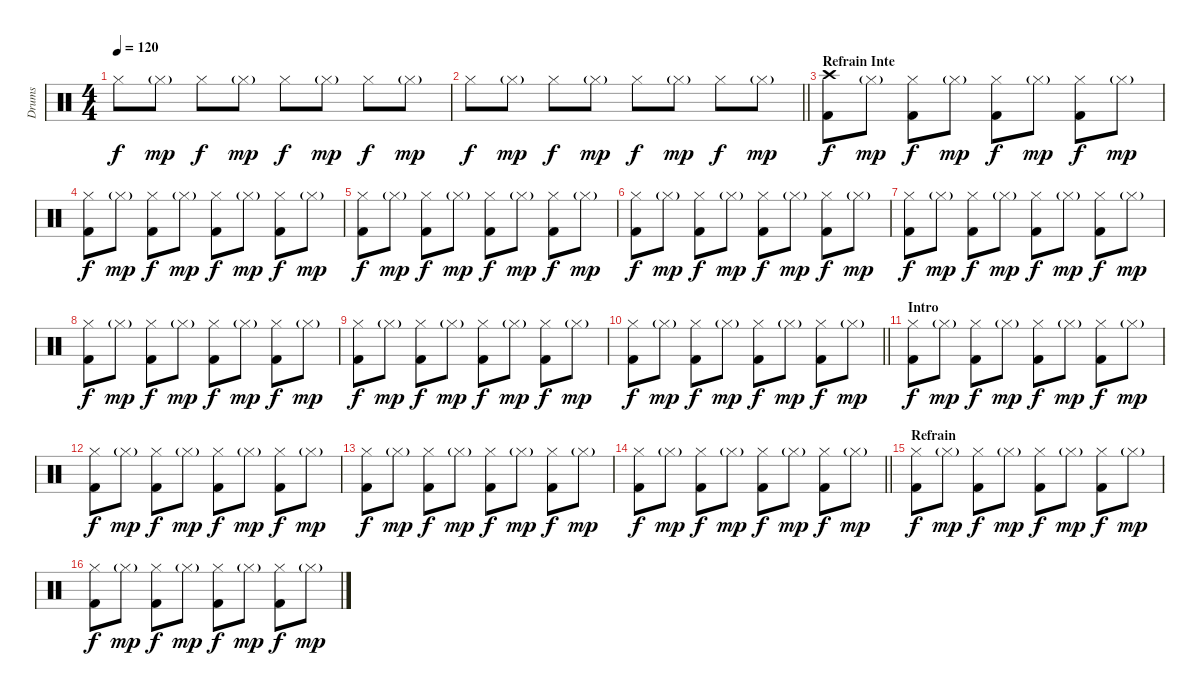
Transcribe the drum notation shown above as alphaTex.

\track ("Drums" "Drums") {instrument percussion}
\staff {score}
\articulation defaults
\ts (4 4)
\tempo 120
\clef neutral
\ks c "Hi-Hat (closed)".8{dy f} "Hi-Hat (closed)"{g}.8{dy mp} "Hi-Hat (closed)".8{dy f} "Hi-Hat (closed)"{g}.8{dy mp} "Hi-Hat (closed)".8{dy f} "Hi-Hat (closed)"{g}.8{dy mp} "Hi-Hat (closed)".8{dy f} "Hi-Hat (closed)"{g}.8{dy mp}
|
\barLineRight lightlight "Hi-Hat (closed)".8{dy f} "Hi-Hat (closed)"{g}.8{dy mp} "Hi-Hat (closed)".8{dy f} "Hi-Hat (closed)"{g}.8{dy mp} "Hi-Hat (closed)".8{dy f} "Hi-Hat (closed)"{g}.8{dy mp} "Hi-Hat (closed)".8{dy f} "Hi-Hat (closed)"{g}.8{dy mp}
|
\section ("" "Refrain Inte")
("Crash high (hit)" "Kick (hit) 2").8{dy f} "Hi-Hat (closed)"{g}.8{dy mp} ("Hi-Hat (closed)" "Kick (hit) 2").8{dy f} "Hi-Hat (closed)"{g}.8{dy mp} ("Hi-Hat (closed)" "Kick (hit) 2").8{dy f} "Hi-Hat (closed)"{g}.8{dy mp} ("Hi-Hat (closed)" "Kick (hit) 2").8{dy f} "Hi-Hat (closed)"{g}.8{dy mp} |
("Hi-Hat (closed)" "Kick (hit) 2").8{dy f} "Hi-Hat (closed)"{g}.8{dy mp} ("Hi-Hat (closed)" "Kick (hit) 2").8{dy f} "Hi-Hat (closed)"{g}.8{dy mp} ("Hi-Hat (closed)" "Kick (hit) 2").8{dy f} "Hi-Hat (closed)"{g}.8{dy mp} ("Hi-Hat (closed)" "Kick (hit) 2").8{dy f} "Hi-Hat (closed)"{g}.8{dy mp} |
("Hi-Hat (closed)" "Kick (hit) 2").8{dy f} "Hi-Hat (closed)"{g}.8{dy mp} ("Hi-Hat (closed)" "Kick (hit) 2").8{dy f} "Hi-Hat (closed)"{g}.8{dy mp} ("Hi-Hat (closed)" "Kick (hit) 2").8{dy f} "Hi-Hat (closed)"{g}.8{dy mp} ("Hi-Hat (closed)" "Kick (hit) 2").8{dy f} "Hi-Hat (closed)"{g}.8{dy mp} |
("Hi-Hat (closed)" "Kick (hit) 2").8{dy f} "Hi-Hat (closed)"{g}.8{dy mp} ("Hi-Hat (closed)" "Kick (hit) 2").8{dy f} "Hi-Hat (closed)"{g}.8{dy mp} ("Hi-Hat (closed)" "Kick (hit) 2").8{dy f} "Hi-Hat (closed)"{g}.8{dy mp} ("Hi-Hat (closed)" "Kick (hit) 2").8{dy f} "Hi-Hat (closed)"{g}.8{dy mp} |
("Hi-Hat (closed)" "Kick (hit) 2").8{dy f} "Hi-Hat (closed)"{g}.8{dy mp} ("Hi-Hat (closed)" "Kick (hit) 2").8{dy f} "Hi-Hat (closed)"{g}.8{dy mp} ("Hi-Hat (closed)" "Kick (hit) 2").8{dy f} "Hi-Hat (closed)"{g}.8{dy mp} ("Hi-Hat (closed)" "Kick (hit) 2").8{dy f} "Hi-Hat (closed)"{g}.8{dy mp} |
("Hi-Hat (closed)" "Kick (hit) 2").8{dy f} "Hi-Hat (closed)"{g}.8{dy mp} ("Hi-Hat (closed)" "Kick (hit) 2").8{dy f} "Hi-Hat (closed)"{g}.8{dy mp} ("Hi-Hat (closed)" "Kick (hit) 2").8{dy f} "Hi-Hat (closed)"{g}.8{dy mp} ("Hi-Hat (closed)" "Kick (hit) 2").8{dy f} "Hi-Hat (closed)"{g}.8{dy mp} |
("Hi-Hat (closed)" "Kick (hit) 2").8{dy f} "Hi-Hat (closed)"{g}.8{dy mp} ("Hi-Hat (closed)" "Kick (hit) 2").8{dy f} "Hi-Hat (closed)"{g}.8{dy mp} ("Hi-Hat (closed)" "Kick (hit) 2").8{dy f} "Hi-Hat (closed)"{g}.8{dy mp} ("Hi-Hat (closed)" "Kick (hit) 2").8{dy f} "Hi-Hat (closed)"{g}.8{dy mp} |
\barLineRight lightlight
("Hi-Hat (closed)" "Kick (hit) 2").8{dy f} "Hi-Hat (closed)"{g}.8{dy mp} ("Hi-Hat (closed)" "Kick (hit) 2").8{dy f} "Hi-Hat (closed)"{g}.8{dy mp} ("Hi-Hat (closed)" "Kick (hit) 2").8{dy f} "Hi-Hat (closed)"{g}.8{dy mp} ("Hi-Hat (closed)" "Kick (hit) 2").8{dy f} "Hi-Hat (closed)"{g}.8{dy mp} |
\section ("" "Intro")
("Hi-Hat (closed)" "Kick (hit) 2").8{dy f} "Hi-Hat (closed)"{g}.8{dy mp} ("Hi-Hat (closed)" "Kick (hit) 2").8{dy f} "Hi-Hat (closed)"{g}.8{dy mp} ("Hi-Hat (closed)" "Kick (hit) 2").8{dy f} "Hi-Hat (closed)"{g}.8{dy mp} ("Hi-Hat (closed)" "Kick (hit) 2").8{dy f} "Hi-Hat (closed)"{g}.8{dy mp} |
("Hi-Hat (closed)" "Kick (hit) 2").8{dy f} "Hi-Hat (closed)"{g}.8{dy mp} ("Hi-Hat (closed)" "Kick (hit) 2").8{dy f} "Hi-Hat (closed)"{g}.8{dy mp} ("Hi-Hat (closed)" "Kick (hit) 2").8{dy f} "Hi-Hat (closed)"{g}.8{dy mp} ("Hi-Hat (closed)" "Kick (hit) 2").8{dy f} "Hi-Hat (closed)"{g}.8{dy mp} |
("Hi-Hat (closed)" "Kick (hit) 2").8{dy f} "Hi-Hat (closed)"{g}.8{dy mp} ("Hi-Hat (closed)" "Kick (hit) 2").8{dy f} "Hi-Hat (closed)"{g}.8{dy mp} ("Hi-Hat (closed)" "Kick (hit) 2").8{dy f} "Hi-Hat (closed)"{g}.8{dy mp} ("Hi-Hat (closed)" "Kick (hit) 2").8{dy f} "Hi-Hat (closed)"{g}.8{dy mp} |
\barLineRight lightlight
("Hi-Hat (closed)" "Kick (hit) 2").8{dy f} "Hi-Hat (closed)"{g}.8{dy mp} ("Hi-Hat (closed)" "Kick (hit) 2").8{dy f} "Hi-Hat (closed)"{g}.8{dy mp} ("Hi-Hat (closed)" "Kick (hit) 2").8{dy f} "Hi-Hat (closed)"{g}.8{dy mp} ("Hi-Hat (closed)" "Kick (hit) 2").8{dy f} "Hi-Hat (closed)"{g}.8{dy mp} |
\section ("" "Refrain")
("Hi-Hat (closed)" "Kick (hit) 2").8{dy f} "Hi-Hat (closed)"{g}.8{dy mp} ("Hi-Hat (closed)" "Kick (hit) 2").8{dy f} "Hi-Hat (closed)"{g}.8{dy mp} ("Hi-Hat (closed)" "Kick (hit) 2").8{dy f} "Hi-Hat (closed)"{g}.8{dy mp} ("Hi-Hat (closed)" "Kick (hit) 2").8{dy f} "Hi-Hat (closed)"{g}.8{dy mp} |
("Hi-Hat (closed)" "Kick (hit) 2").8{dy f} "Hi-Hat (closed)"{g}.8{dy mp} ("Hi-Hat (closed)" "Kick (hit) 2").8{dy f} "Hi-Hat (closed)"{g}.8{dy mp} ("Hi-Hat (closed)" "Kick (hit) 2").8{dy f} "Hi-Hat (closed)"{g}.8{dy mp} ("Hi-Hat (closed)" "Kick (hit) 2").8{dy f} "Hi-Hat (closed)"{g}.8{dy mp}
